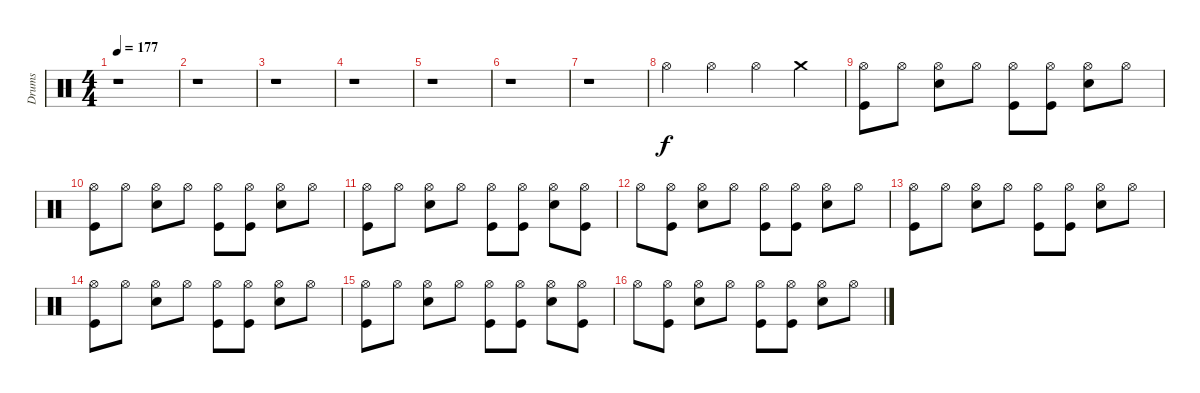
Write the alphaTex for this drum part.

\track ("Drums" "Drums") {instrument percussion}
\staff {score}
\articulation defaults
\ts (4 4)
\tempo 177
\clef neutral
\ks c
r.1{dy f} |
r.1 |
r.1 |
r.1 |
r.1 |
r.1 |
r.1 |
"Hi-Hat (open)".4 "Hi-Hat (open)".4 "Hi-Hat (open)".4 "Crash medium (hit)".4 |
("Hi-Hat (open)" "Kick (hit)").8 "Hi-Hat (open)".8 ("Hi-Hat (open)" "Snare (hit) 2").8 "Hi-Hat (open)".8 ("Hi-Hat (open)" "Kick (hit)").8 ("Hi-Hat (open)" "Kick (hit)").8 ("Hi-Hat (open)" "Snare (hit) 2").8 "Hi-Hat (open)".8 |
("Hi-Hat (open)" "Kick (hit)").8 "Hi-Hat (open)".8 ("Hi-Hat (open)" "Snare (hit) 2").8 "Hi-Hat (open)".8 ("Hi-Hat (open)" "Kick (hit)").8 ("Hi-Hat (open)" "Kick (hit)").8 ("Hi-Hat (open)" "Snare (hit) 2").8 "Hi-Hat (open)".8 |
("Hi-Hat (open)" "Kick (hit)").8 "Hi-Hat (open)".8 ("Hi-Hat (open)" "Snare (hit) 2").8 "Hi-Hat (open)".8 ("Hi-Hat (open)" "Kick (hit)").8 ("Hi-Hat (open)" "Kick (hit)").8 ("Hi-Hat (open)" "Snare (hit) 2").8 ("Hi-Hat (open)" "Kick (hit)").8 |
"Hi-Hat (open)".8 ("Hi-Hat (open)" "Kick (hit)").8 ("Hi-Hat (open)" "Snare (hit) 2").8 "Hi-Hat (open)".8 ("Hi-Hat (open)" "Kick (hit)").8 ("Hi-Hat (open)" "Kick (hit)").8 ("Hi-Hat (open)" "Snare (hit) 2").8 "Hi-Hat (open)".8 |
("Hi-Hat (open)" "Kick (hit)").8 "Hi-Hat (open)".8 ("Hi-Hat (open)" "Snare (hit) 2").8 "Hi-Hat (open)".8 ("Hi-Hat (open)" "Kick (hit)").8 ("Hi-Hat (open)" "Kick (hit)").8 ("Hi-Hat (open)" "Snare (hit) 2").8 "Hi-Hat (open)".8 |
("Hi-Hat (open)" "Kick (hit)").8 "Hi-Hat (open)".8 ("Hi-Hat (open)" "Snare (hit) 2").8 "Hi-Hat (open)".8 ("Hi-Hat (open)" "Kick (hit)").8 ("Hi-Hat (open)" "Kick (hit)").8 ("Hi-Hat (open)" "Snare (hit) 2").8 "Hi-Hat (open)".8 |
("Hi-Hat (open)" "Kick (hit)").8 "Hi-Hat (open)".8 ("Hi-Hat (open)" "Snare (hit) 2").8 "Hi-Hat (open)".8 ("Hi-Hat (open)" "Kick (hit)").8 ("Hi-Hat (open)" "Kick (hit)").8 ("Hi-Hat (open)" "Snare (hit) 2").8 ("Hi-Hat (open)" "Kick (hit)").8 |
"Hi-Hat (open)".8 ("Hi-Hat (open)" "Kick (hit)").8 ("Hi-Hat (open)" "Snare (hit) 2").8 "Hi-Hat (open)".8 ("Hi-Hat (open)" "Kick (hit)").8 ("Hi-Hat (open)" "Kick (hit)").8 ("Hi-Hat (open)" "Snare (hit) 2").8 "Hi-Hat (open)".8
